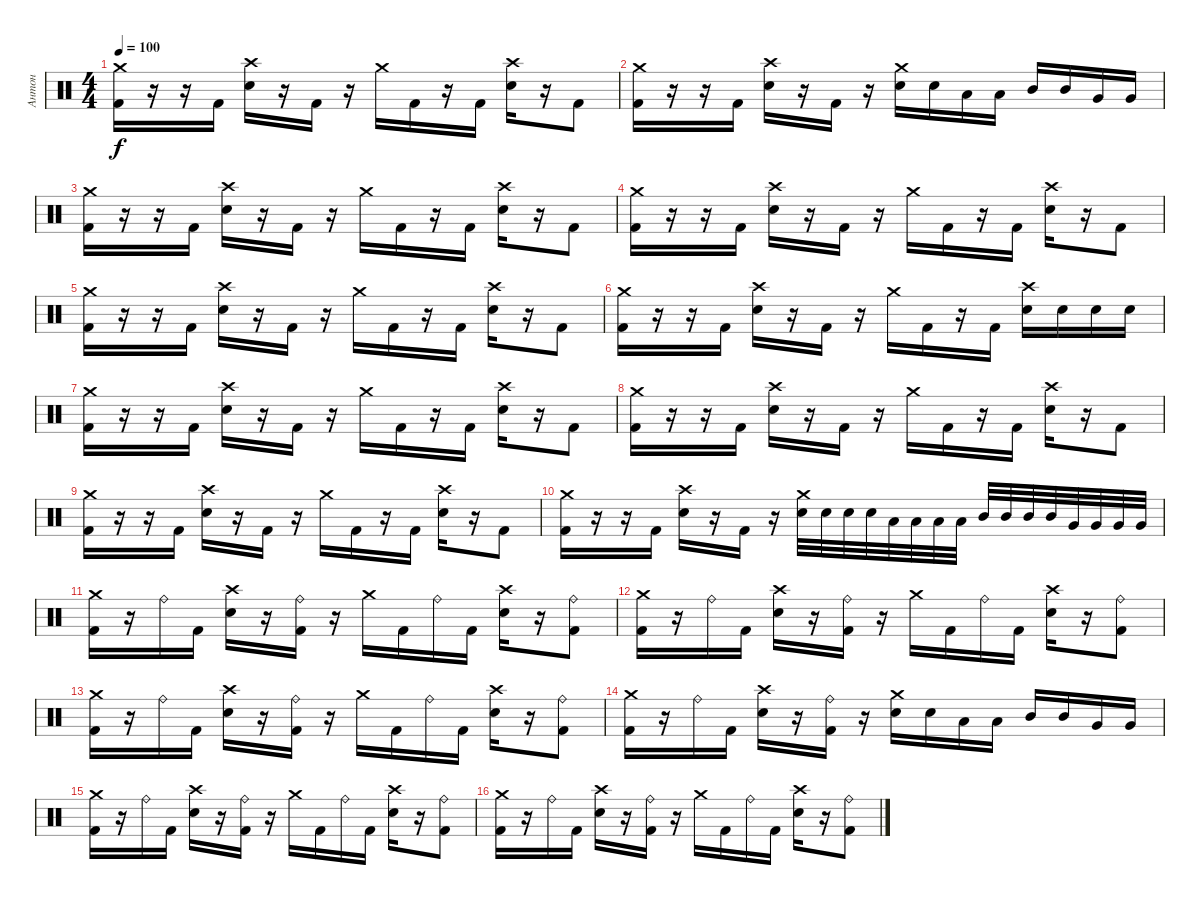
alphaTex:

\track ("Антон" "Антон") {instrument percussion}
\staff {score}
\articulation defaults
\ts (4 4)
\tempo 100
\clef neutral
\ks c
("Crash medium (hit)" "Kick (hit) 2").16{dy f} r.16 r.16 "Kick (hit) 2".16 ("Crash high (hit)" "Electric Snare (hit)").16 r.16 "Kick (hit) 2".16 r.16 "Crash medium (hit)".16 "Kick (hit) 2".16 r.16 "Kick (hit) 2".16 ("Crash high (hit)" "Electric Snare (hit)").16 r.16 "Kick (hit) 2".8 |
("Crash medium (hit)" "Kick (hit) 2").16 r.16 r.16 "Kick (hit) 2".16 ("Crash high (hit)" "Electric Snare (hit)").16 r.16 "Kick (hit) 2".16 r.16 ("Crash medium (hit)" "Electric Snare (hit)").16 "Electric Snare (hit)".16 "Low Tom (hit)".16 "Low Tom (hit)".16 "Mid Tom (hit)".16 "Mid Tom (hit)".16 "Very Low Tom (hit)".16 "Very Low Tom (hit)".16 |
("Crash medium (hit)" "Kick (hit) 2").16 r.16 r.16 "Kick (hit) 2".16 ("Crash high (hit)" "Electric Snare (hit)").16 r.16 "Kick (hit) 2".16 r.16 "Crash medium (hit)".16 "Kick (hit) 2".16 r.16 "Kick (hit) 2".16 ("Crash high (hit)" "Electric Snare (hit)").16 r.16 "Kick (hit) 2".8 |
("Crash medium (hit)" "Kick (hit) 2").16 r.16 r.16 "Kick (hit) 2".16 ("Crash high (hit)" "Electric Snare (hit)").16 r.16 "Kick (hit) 2".16 r.16 "Crash medium (hit)".16 "Kick (hit) 2".16 r.16 "Kick (hit) 2".16 ("Crash high (hit)" "Electric Snare (hit)").16 r.16 "Kick (hit) 2".8 |
("Crash medium (hit)" "Kick (hit) 2").16 r.16 r.16 "Kick (hit) 2".16 ("Crash high (hit)" "Electric Snare (hit)").16 r.16 "Kick (hit) 2".16 r.16 "Crash medium (hit)".16 "Kick (hit) 2".16 r.16 "Kick (hit) 2".16 ("Crash high (hit)" "Electric Snare (hit)").16 r.16 "Kick (hit) 2".8 |
("Crash medium (hit)" "Kick (hit) 2").16 r.16 r.16 "Kick (hit) 2".16 ("Crash high (hit)" "Electric Snare (hit)").16 r.16 "Kick (hit) 2".16 r.16 "Crash medium (hit)".16 "Kick (hit) 2".16 r.16 "Kick (hit) 2".16 ("Crash high (hit)" "Electric Snare (hit)").16 "Electric Snare (hit)".16 "Electric Snare (hit)".16 "Electric Snare (hit)".16 |
("Crash medium (hit)" "Kick (hit) 2").16 r.16 r.16 "Kick (hit) 2".16 ("Crash high (hit)" "Electric Snare (hit)").16 r.16 "Kick (hit) 2".16 r.16 "Crash medium (hit)".16 "Kick (hit) 2".16 r.16 "Kick (hit) 2".16 ("Crash high (hit)" "Electric Snare (hit)").16 r.16 "Kick (hit) 2".8 |
("Crash medium (hit)" "Kick (hit) 2").16 r.16 r.16 "Kick (hit) 2".16 ("Crash high (hit)" "Electric Snare (hit)").16 r.16 "Kick (hit) 2".16 r.16 "Crash medium (hit)".16 "Kick (hit) 2".16 r.16 "Kick (hit) 2".16 ("Crash high (hit)" "Electric Snare (hit)").16 r.16 "Kick (hit) 2".8 |
("Crash medium (hit)" "Kick (hit) 2").16 r.16 r.16 "Kick (hit) 2".16 ("Crash high (hit)" "Electric Snare (hit)").16 r.16 "Kick (hit) 2".16 r.16 "Crash medium (hit)".16 "Kick (hit) 2".16 r.16 "Kick (hit) 2".16 ("Crash high (hit)" "Electric Snare (hit)").16 r.16 "Kick (hit) 2".8 |
("Crash medium (hit)" "Kick (hit) 2").16 r.16 r.16 "Kick (hit) 2".16 ("Crash high (hit)" "Electric Snare (hit)").16 r.16 "Kick (hit) 2".16 r.16 ("Crash medium (hit)" "Electric Snare (hit)").32 "Electric Snare (hit)".32 "Electric Snare (hit)".32 "Electric Snare (hit)".32 "Low Tom (hit)".32 "Low Tom (hit)".32 "Low Tom (hit)".32 "Low Tom (hit)".32 "Mid Tom (hit)".32 "Mid Tom (hit)".32 "Mid Tom (hit)".32 "Mid Tom (hit)".32 "Very Low Tom (hit)".32 "Very Low Tom (hit)".32 "Very Low Tom (hit)".32 "Very Low Tom (hit)".32 |
("Crash medium (hit)" "Kick (hit) 2").16 r.16 "Ride (bell)".16 "Kick (hit) 2".16 ("Crash high (hit)" "Electric Snare (hit)").16 r.16 ("Ride (bell)" "Kick (hit) 2").16 r.16 "Crash medium (hit)".16 "Kick (hit) 2".16 "Ride (bell)".16 "Kick (hit) 2".16 ("Crash high (hit)" "Electric Snare (hit)").16 r.16 ("Ride (bell)" "Kick (hit) 2").8 |
("Crash medium (hit)" "Kick (hit) 2").16 r.16 "Ride (bell)".16 "Kick (hit) 2".16 ("Crash high (hit)" "Electric Snare (hit)").16 r.16 ("Ride (bell)" "Kick (hit) 2").16 r.16 "Crash medium (hit)".16 "Kick (hit) 2".16 "Ride (bell)".16 "Kick (hit) 2".16 ("Crash high (hit)" "Electric Snare (hit)").16 r.16 ("Ride (bell)" "Kick (hit) 2").8 |
("Crash medium (hit)" "Kick (hit) 2").16 r.16 "Ride (bell)".16 "Kick (hit) 2".16 ("Crash high (hit)" "Electric Snare (hit)").16 r.16 ("Ride (bell)" "Kick (hit) 2").16 r.16 "Crash medium (hit)".16 "Kick (hit) 2".16 "Ride (bell)".16 "Kick (hit) 2".16 ("Crash high (hit)" "Electric Snare (hit)").16 r.16 ("Ride (bell)" "Kick (hit) 2").8 |
("Crash medium (hit)" "Kick (hit) 2").16 r.16 "Ride (bell)".16 "Kick (hit) 2".16 ("Crash high (hit)" "Electric Snare (hit)").16 r.16 ("Ride (bell)" "Kick (hit) 2").16 r.16 ("Crash medium (hit)" "Electric Snare (hit)").16 "Electric Snare (hit)".16 "Low Tom (hit)".16 "Low Tom (hit)".16 "Mid Tom (hit)".16 "Mid Tom (hit)".16 "Very Low Tom (hit)".16 "Very Low Tom (hit)".16 |
("Crash medium (hit)" "Kick (hit) 2").16 r.16 "Ride (bell)".16 "Kick (hit) 2".16 ("Crash high (hit)" "Electric Snare (hit)").16 r.16 ("Ride (bell)" "Kick (hit) 2").16 r.16 "Crash medium (hit)".16 "Kick (hit) 2".16 "Ride (bell)".16 "Kick (hit) 2".16 ("Crash high (hit)" "Electric Snare (hit)").16 r.16 ("Ride (bell)" "Kick (hit) 2").8 |
("Crash medium (hit)" "Kick (hit) 2").16 r.16 "Ride (bell)".16 "Kick (hit) 2".16 ("Crash high (hit)" "Electric Snare (hit)").16 r.16 ("Ride (bell)" "Kick (hit) 2").16 r.16 "Crash medium (hit)".16 "Kick (hit) 2".16 "Ride (bell)".16 "Kick (hit) 2".16 ("Crash high (hit)" "Electric Snare (hit)").16 r.16 ("Ride (bell)" "Kick (hit) 2").8
